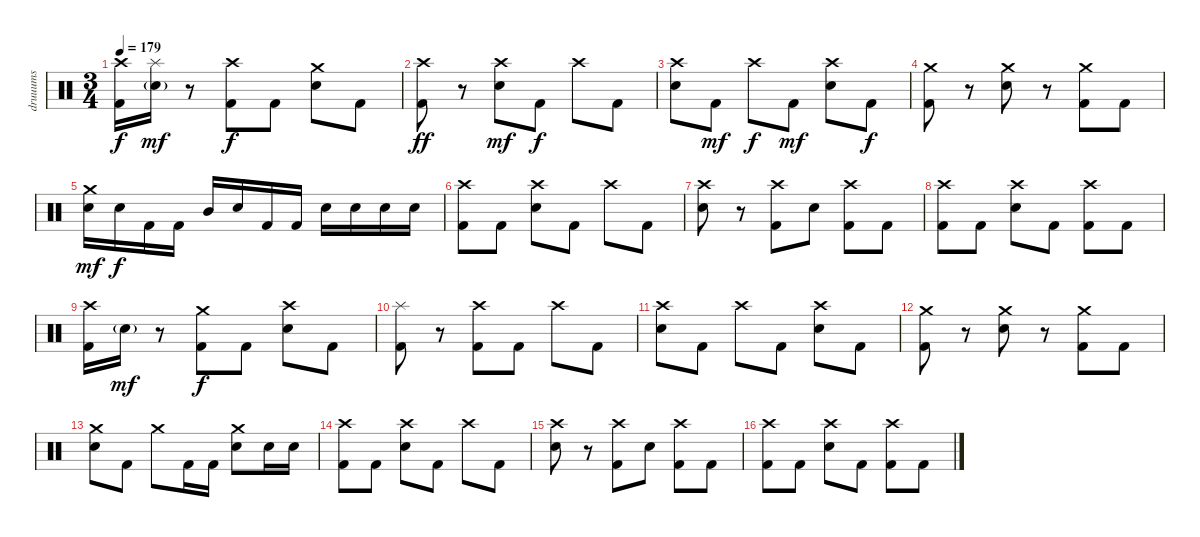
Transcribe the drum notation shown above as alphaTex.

\track ("druuums" "druuums") {instrument percussion}
\staff {score}
\articulation defaults
\ts (3 4)
\tempo 179
\clef neutral
\ks c
("Crash high (hit)" "Kick (hit) 2").16{dy f} ("Splash (hit)" "Electric Snare (hit)"{g}).16{dy mf} r.8 ("Crash high (hit)" "Kick (hit) 2").8{dy f} "Kick (hit) 2".8 ("Crash medium (hit)" "Electric Snare (hit)").8 "Kick (hit) 2".8 |
("Crash high (hit)" "Kick (hit) 2").8{dy ff} r.8 ("Crash high (hit)" "Electric Snare (hit)").8{dy mf} "Kick (hit) 2".8{dy f} "Crash high (hit)".8 "Kick (hit) 2".8 |
("Crash high (hit)" "Electric Snare (hit)").8 "Kick (hit) 2".8{dy mf} "Crash high (hit)".8{dy f} "Kick (hit) 2".8{dy mf} ("Crash high (hit)" "Electric Snare (hit)").8 "Kick (hit) 2".8{dy f} |
("Crash medium (hit)" "Kick (hit) 2").8 r.8 ("Crash medium (hit)" "Electric Snare (hit)").8 r.8 ("Crash medium (hit)" "Kick (hit) 2").8 "Kick (hit) 2".8 |
("Crash medium (hit)" "Electric Snare (hit)").16{dy mf} "Electric Snare (hit)".16{dy f} "Kick (hit) 2".16 "Kick (hit) 2".16 "Mid Tom (hit)".16 "Electric Snare (hit)".16 "Kick (hit) 2".16 "Kick (hit) 2".16 "Electric Snare (hit)".16 "Electric Snare (hit)".16 "Electric Snare (hit)".16 "Electric Snare (hit)".16 |
("Crash high (hit)" "Kick (hit) 2").8 "Kick (hit) 2".8 ("Crash high (hit)" "Electric Snare (hit)").8 "Kick (hit) 2".8 "Crash high (hit)".8 "Kick (hit) 2".8 |
("Crash high (hit)" "Electric Snare (hit)").8 r.8 ("Crash high (hit)" "Kick (hit) 2").8 "Electric Snare (hit)".8 ("Crash high (hit)" "Kick (hit) 2").8 "Kick (hit) 2".8 |
("Crash high (hit)" "Kick (hit) 2").8 "Kick (hit) 2".8 ("Crash high (hit)" "Electric Snare (hit)").8 "Kick (hit) 2".8 ("Crash high (hit)" "Kick (hit) 2").8 "Kick (hit) 2".8 |
("Crash high (hit)" "Kick (hit) 2").16 "Electric Snare (hit)"{g}.16{dy mf} r.8 ("Crash medium (hit)" "Kick (hit) 2").8{dy f} "Kick (hit) 2".8 ("Crash high (hit)" "Electric Snare (hit)").8 "Kick (hit) 2".8 |
("Splash (hit)" "Kick (hit) 2").8 r.8 ("Crash high (hit)" "Kick (hit) 2").8 "Kick (hit) 2".8 "Crash high (hit)".8 "Kick (hit) 2".8 |
("Crash high (hit)" "Electric Snare (hit)").8 "Kick (hit) 2".8 "Crash high (hit)".8 "Kick (hit) 2".8 ("Crash high (hit)" "Electric Snare (hit)").8 "Kick (hit) 2".8 |
("Crash medium (hit)" "Kick (hit) 2").8 r.8 ("Crash medium (hit)" "Electric Snare (hit)").8 r.8 ("Crash medium (hit)" "Kick (hit) 2").8 "Kick (hit) 2".8 |
("Crash medium (hit)" "Electric Snare (hit)").8 "Kick (hit) 2".8 "Crash medium (hit)".8 "Kick (hit) 2".16 "Kick (hit) 2".16 ("Crash medium (hit)" "Electric Snare (hit)").8 "Electric Snare (hit)".16 "Electric Snare (hit)".16 |
("Crash high (hit)" "Kick (hit) 2").8 "Kick (hit) 2".8 ("Crash high (hit)" "Electric Snare (hit)").8 "Kick (hit) 2".8 "Crash high (hit)".8 "Kick (hit) 2".8 |
("Crash high (hit)" "Electric Snare (hit)").8 r.8 ("Crash high (hit)" "Kick (hit) 2").8 "Electric Snare (hit)".8 ("Crash high (hit)" "Kick (hit) 2").8 "Kick (hit) 2".8 |
("Crash high (hit)" "Kick (hit) 2").8 "Kick (hit) 2".8 ("Crash high (hit)" "Electric Snare (hit)").8 "Kick (hit) 2".8 ("Crash high (hit)" "Kick (hit) 2").8 "Kick (hit) 2".8
